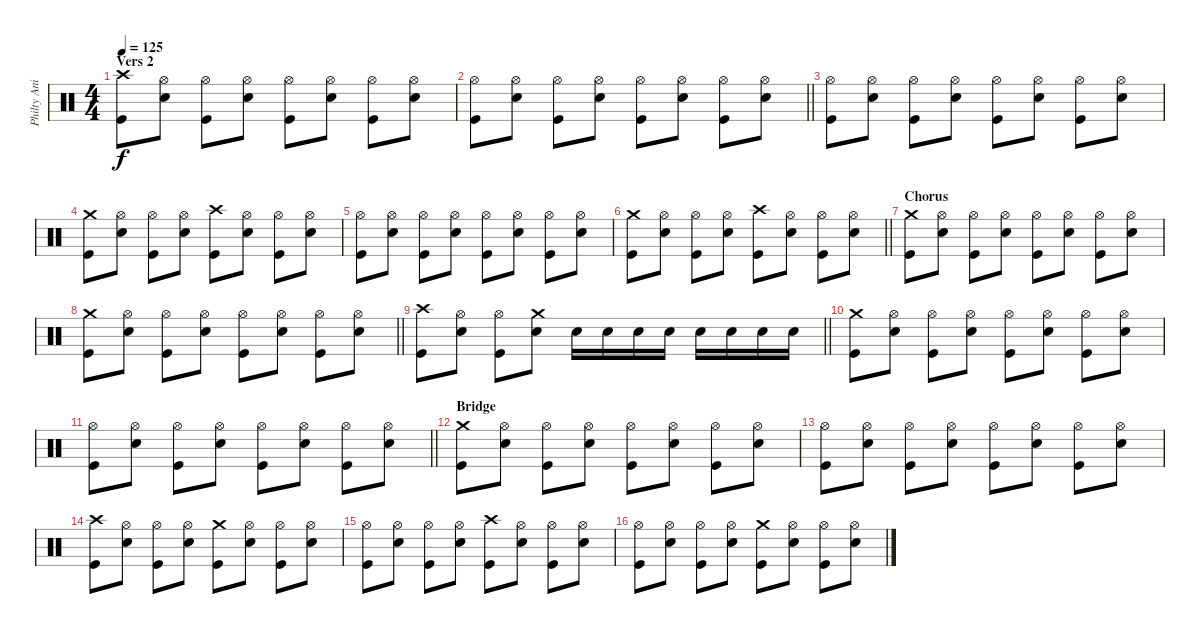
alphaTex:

\track ("Philty Animal Taylor" "Philty Ani") {instrument percussion}
\staff {score}
\articulation defaults
\ts (4 4)
\section ("" "Vers 2")
\tempo 125
\clef neutral
\ks c
("Crash high (hit)" "Kick (hit)").8{dy f} ("Hi-Hat (open)" "Electric Snare (hit)").8 ("Hi-Hat (open)" "Kick (hit)").8 ("Hi-Hat (open)" "Electric Snare (hit)").8 ("Hi-Hat (open)" "Kick (hit)").8 ("Hi-Hat (open)" "Electric Snare (hit)").8 ("Hi-Hat (open)" "Kick (hit)").8 ("Hi-Hat (open)" "Electric Snare (hit)").8 |
\barLineRight lightlight
("Hi-Hat (open)" "Kick (hit)").8 ("Hi-Hat (open)" "Electric Snare (hit)").8 ("Hi-Hat (open)" "Kick (hit)").8 ("Hi-Hat (open)" "Electric Snare (hit)").8 ("Hi-Hat (open)" "Kick (hit)").8 ("Hi-Hat (open)" "Electric Snare (hit)").8 ("Hi-Hat (open)" "Kick (hit)").8 ("Hi-Hat (open)" "Electric Snare (hit)").8 |
("Hi-Hat (open)" "Kick (hit)").8 ("Hi-Hat (open)" "Electric Snare (hit)").8 ("Hi-Hat (open)" "Kick (hit)").8 ("Hi-Hat (open)" "Electric Snare (hit)").8 ("Hi-Hat (open)" "Kick (hit)").8 ("Hi-Hat (open)" "Electric Snare (hit)").8 ("Hi-Hat (open)" "Kick (hit)").8 ("Hi-Hat (open)" "Electric Snare (hit)").8 |
("Crash medium (hit)" "Kick (hit)").8 ("Hi-Hat (open)" "Electric Snare (hit)").8 ("Hi-Hat (open)" "Kick (hit)").8 ("Hi-Hat (open)" "Electric Snare (hit)").8 ("Crash high (hit)" "Kick (hit)").8 ("Hi-Hat (open)" "Electric Snare (hit)").8 ("Hi-Hat (open)" "Kick (hit)").8 ("Hi-Hat (open)" "Electric Snare (hit)").8 |
("Hi-Hat (open)" "Kick (hit)").8 ("Hi-Hat (open)" "Electric Snare (hit)").8 ("Hi-Hat (open)" "Kick (hit)").8 ("Hi-Hat (open)" "Electric Snare (hit)").8 ("Hi-Hat (open)" "Kick (hit)").8 ("Hi-Hat (open)" "Electric Snare (hit)").8 ("Hi-Hat (open)" "Kick (hit)").8 ("Hi-Hat (open)" "Electric Snare (hit)").8 |
\barLineRight lightlight
("Crash medium (hit)" "Kick (hit)").8 ("Hi-Hat (open)" "Electric Snare (hit)").8 ("Hi-Hat (open)" "Kick (hit)").8 ("Hi-Hat (open)" "Electric Snare (hit)").8 ("Crash high (hit)" "Kick (hit)").8 ("Hi-Hat (open)" "Electric Snare (hit)").8 ("Hi-Hat (open)" "Kick (hit)").8 ("Hi-Hat (open)" "Electric Snare (hit)").8 |
\section ("" "Chorus")
("Crash medium (hit)" "Kick (hit)").8 ("Hi-Hat (open)" "Electric Snare (hit)").8 ("Hi-Hat (open)" "Kick (hit)").8 ("Hi-Hat (open)" "Electric Snare (hit)").8 ("Hi-Hat (open)" "Kick (hit)").8 ("Hi-Hat (open)" "Electric Snare (hit)").8 ("Hi-Hat (open)" "Kick (hit)").8 ("Hi-Hat (open)" "Electric Snare (hit)").8 |
\barLineRight lightlight
("Crash medium (hit)" "Kick (hit)").8 ("Hi-Hat (open)" "Electric Snare (hit)").8 ("Hi-Hat (open)" "Kick (hit)").8 ("Hi-Hat (open)" "Electric Snare (hit)").8 ("Hi-Hat (open)" "Kick (hit)").8 ("Hi-Hat (open)" "Electric Snare (hit)").8 ("Hi-Hat (open)" "Kick (hit)").8 ("Hi-Hat (open)" "Electric Snare (hit)").8 |
\barLineRight lightlight
("Crash high (hit)" "Kick (hit)").8 ("Hi-Hat (open)" "Electric Snare (hit)").8 ("Hi-Hat (open)" "Kick (hit)").8 ("Crash medium (hit)" "Electric Snare (hit)").8 "Electric Snare (hit)".16 "Electric Snare (hit)".16 "Electric Snare (hit)".16 "Electric Snare (hit)".16 "Electric Snare (hit)".16 "Electric Snare (hit)".16 "Electric Snare (hit)".16 "Electric Snare (hit)".16 |
("Crash medium (hit)" "Kick (hit)").8 ("Hi-Hat (open)" "Electric Snare (hit)").8 ("Hi-Hat (open)" "Kick (hit)").8 ("Hi-Hat (open)" "Electric Snare (hit)").8 ("Hi-Hat (open)" "Kick (hit)").8 ("Hi-Hat (open)" "Electric Snare (hit)").8 ("Hi-Hat (open)" "Kick (hit)").8 ("Hi-Hat (open)" "Electric Snare (hit)").8 |
\barLineRight lightlight
("Hi-Hat (open)" "Kick (hit)").8 ("Hi-Hat (open)" "Electric Snare (hit)").8 ("Hi-Hat (open)" "Kick (hit)").8 ("Hi-Hat (open)" "Electric Snare (hit)").8 ("Hi-Hat (open)" "Kick (hit)").8 ("Hi-Hat (open)" "Electric Snare (hit)").8 ("Hi-Hat (open)" "Kick (hit)").8 ("Hi-Hat (open)" "Electric Snare (hit)").8 |
\section ("" "Bridge")
("Crash medium (hit)" "Kick (hit)").8 ("Hi-Hat (open)" "Electric Snare (hit)").8 ("Hi-Hat (open)" "Kick (hit)").8 ("Hi-Hat (open)" "Electric Snare (hit)").8 ("Hi-Hat (open)" "Kick (hit)").8 ("Hi-Hat (open)" "Electric Snare (hit)").8 ("Hi-Hat (open)" "Kick (hit)").8 ("Hi-Hat (open)" "Electric Snare (hit)").8 |
("Hi-Hat (open)" "Kick (hit)").8 ("Hi-Hat (open)" "Electric Snare (hit)").8 ("Hi-Hat (open)" "Kick (hit)").8 ("Hi-Hat (open)" "Electric Snare (hit)").8 ("Hi-Hat (open)" "Kick (hit)").8 ("Hi-Hat (open)" "Electric Snare (hit)").8 ("Hi-Hat (open)" "Kick (hit)").8 ("Hi-Hat (open)" "Electric Snare (hit)").8 |
("Crash high (hit)" "Kick (hit)").8 ("Hi-Hat (open)" "Electric Snare (hit)").8 ("Hi-Hat (open)" "Kick (hit)").8 ("Hi-Hat (open)" "Electric Snare (hit)").8 ("Crash medium (hit)" "Kick (hit)").8 ("Hi-Hat (open)" "Electric Snare (hit)").8 ("Hi-Hat (open)" "Kick (hit)").8 ("Hi-Hat (open)" "Electric Snare (hit)").8 |
("Hi-Hat (open)" "Kick (hit)").8 ("Hi-Hat (open)" "Electric Snare (hit)").8 ("Hi-Hat (open)" "Kick (hit)").8 ("Hi-Hat (open)" "Electric Snare (hit)").8 ("Crash high (hit)" "Kick (hit)").8 ("Hi-Hat (open)" "Electric Snare (hit)").8 ("Hi-Hat (open)" "Kick (hit)").8 ("Hi-Hat (open)" "Electric Snare (hit)").8 |
("Hi-Hat (open)" "Kick (hit)").8 ("Hi-Hat (open)" "Electric Snare (hit)").8 ("Hi-Hat (open)" "Kick (hit)").8 ("Hi-Hat (open)" "Electric Snare (hit)").8 ("Crash medium (hit)" "Kick (hit)").8 ("Hi-Hat (open)" "Electric Snare (hit)").8 ("Hi-Hat (open)" "Kick (hit)").8 ("Hi-Hat (open)" "Electric Snare (hit)").8
